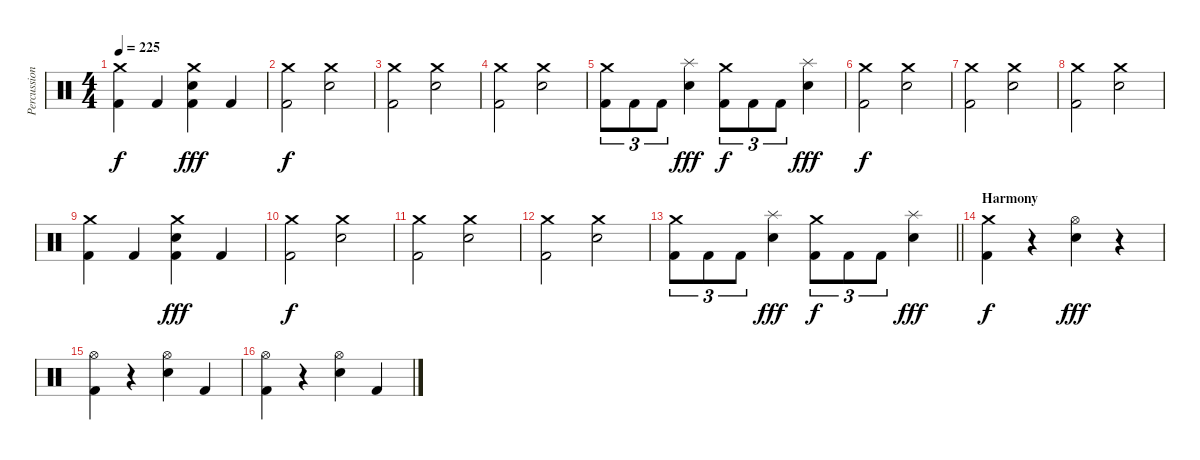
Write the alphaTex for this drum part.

\track ("Percussion" "Percussion") {instrument percussion}
\staff {score}
\articulation defaults
\ts (4 4)
\tempo 225
\clef neutral
\ks c
("Crash medium (hit)" "Kick (hit) 2").4{dy f} "Kick (hit) 2".4 ("Crash medium (hit)" "Electric Snare (hit)" "Kick (hit) 2").4{dy fff} "Kick (hit) 2".4 |
("Crash medium (hit)" "Kick (hit) 2").2{dy f} ("Crash medium (hit)" "Electric Snare (hit)").2 |
("Crash medium (hit)" "Kick (hit) 2").2 ("Crash medium (hit)" "Electric Snare (hit)").2 |
("Crash medium (hit)" "Kick (hit) 2").2 ("Crash medium (hit)" "Electric Snare (hit)").2 |
("Crash medium (hit)" "Kick (hit) 2").8{tu (3 2)} "Kick (hit) 2".8{tu (3 2)} "Kick (hit) 2".8{tu (3 2)} ("Splash (hit)" "Electric Snare (hit)").4{dy fff} ("Crash medium (hit)" "Kick (hit) 2").8{tu (3 2) dy f} "Kick (hit) 2".8{tu (3 2)} "Kick (hit) 2".8{tu (3 2)} ("Splash (hit)" "Electric Snare (hit)").4{dy fff} |
("Crash medium (hit)" "Kick (hit) 2").2{dy f} ("Crash medium (hit)" "Electric Snare (hit)").2 |
("Crash medium (hit)" "Kick (hit) 2").2 ("Crash medium (hit)" "Electric Snare (hit)").2 |
("Crash medium (hit)" "Kick (hit) 2").2 ("Crash medium (hit)" "Electric Snare (hit)").2 |
("Crash medium (hit)" "Kick (hit) 2").4 "Kick (hit) 2".4 ("Crash medium (hit)" "Electric Snare (hit)" "Kick (hit) 2").4{dy fff} "Kick (hit) 2".4 |
("Crash medium (hit)" "Kick (hit) 2").2{dy f} ("Crash medium (hit)" "Electric Snare (hit)").2 |
("Crash medium (hit)" "Kick (hit) 2").2 ("Crash medium (hit)" "Electric Snare (hit)").2 |
("Crash medium (hit)" "Kick (hit) 2").2 ("Crash medium (hit)" "Electric Snare (hit)").2 |
\barLineRight lightlight
("Crash medium (hit)" "Kick (hit) 2").8{tu (3 2)} "Kick (hit) 2".8{tu (3 2)} "Kick (hit) 2".8{tu (3 2)} ("Splash (hit)" "Electric Snare (hit)").4{dy fff} ("Crash medium (hit)" "Kick (hit) 2").8{tu (3 2) dy f} "Kick (hit) 2".8{tu (3 2)} "Kick (hit) 2".8{tu (3 2)} ("Splash (hit)" "Electric Snare (hit)").4{dy fff} |
\section ("" "Harmony")
("Crash medium (hit)" "Kick (hit) 2").4{dy f} r.4 ("Hi-Hat (open)" "Electric Snare (hit)").4{dy fff} r.4 |
("Hi-Hat (open)" "Kick (hit) 2").4 r.4 ("Hi-Hat (open)" "Electric Snare (hit)").4 "Kick (hit) 2".4 |
("Hi-Hat (open)" "Kick (hit) 2").4 r.4 ("Hi-Hat (open)" "Electric Snare (hit)").4 "Kick (hit) 2".4
